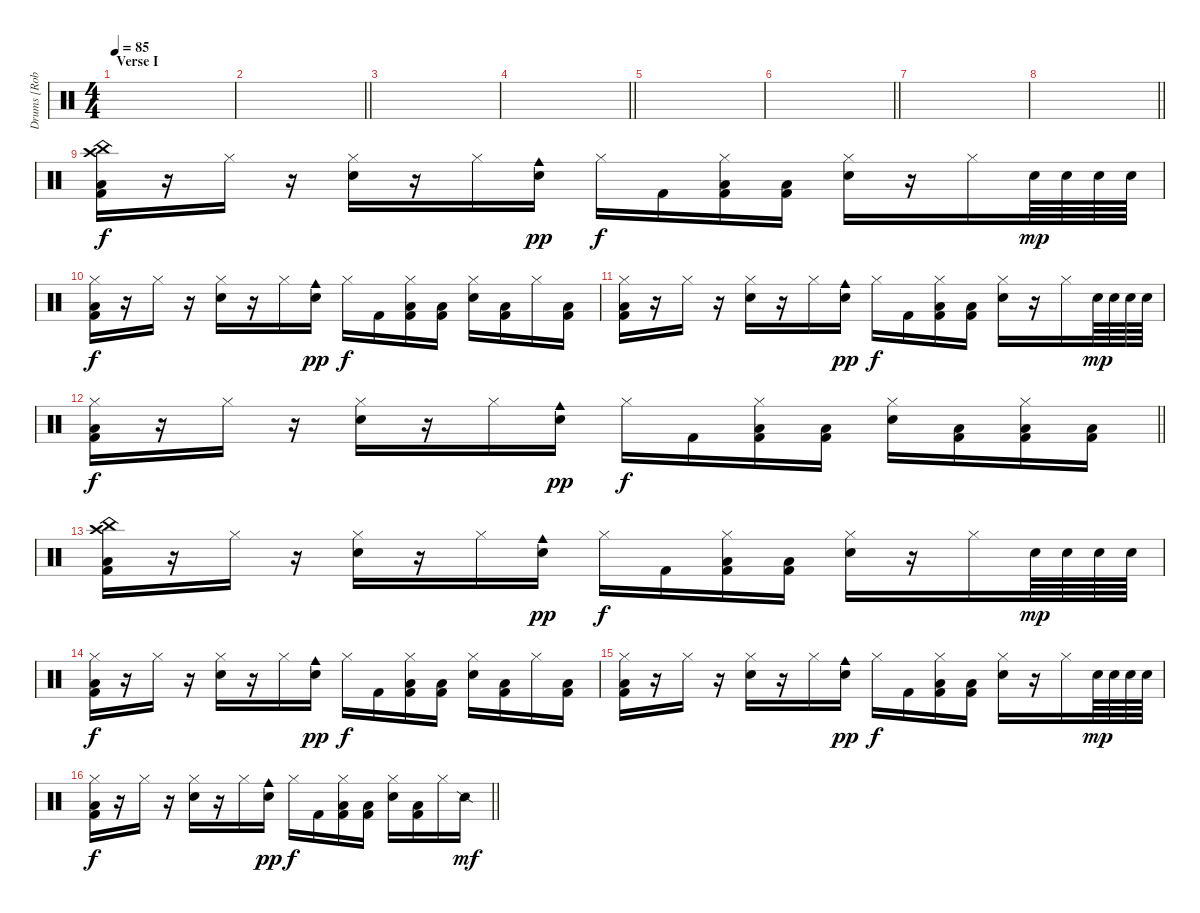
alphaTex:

\track ("Drums [Rob Bourdon]" "Drums [Rob") {instrument percussion}
\staff {score}
\articulation defaults
\ts (4 4)
\section ("" "Verse I")
\tempo 85
\clef neutral
\ks c
|
\barLineRight lightlight
|
|
\barLineRight lightlight
|
|
\barLineRight lightlight
|
|
\barLineRight lightlight
|
("China (hit)" "Crash high (hit)" "Low Floor Tom (hit)" "Kick (hit) 2").16 r.16 "Hi-Hat (closed)".16 r.16 ("Hi-Hat (closed)" "Snare (hit) 2").16 r.16 "Hi-Hat (closed)".16 ("Snare (hit) 2" "Cowbell medium (hit)").16{dy pp} "Hi-Hat (closed)".16{dy f} "Kick (hit) 2".16 ("Hi-Hat (closed)" "Low Floor Tom (hit)" "Kick (hit) 2").16 ("Low Floor Tom (hit)" "Kick (hit) 2").16 ("Hi-Hat (closed)" "Snare (hit) 2").16 r.16 "Hi-Hat (closed)".16 "Snare (hit) 2".64{dy mp} "Snare (hit) 2".64 "Snare (hit) 2".64 "Snare (hit) 2".64 |
("Hi-Hat (closed)" "Low Floor Tom (hit)" "Kick (hit) 2").16{dy f} r.16 "Hi-Hat (closed)".16 r.16 ("Hi-Hat (closed)" "Snare (hit) 2").16 r.16 "Hi-Hat (closed)".16 ("Snare (hit) 2" "Cowbell medium (hit)").16{dy pp} "Hi-Hat (closed)".16{dy f} "Kick (hit) 2".16 ("Hi-Hat (closed)" "Low Floor Tom (hit)" "Kick (hit) 2").16 ("Low Floor Tom (hit)" "Kick (hit) 2").16 ("Hi-Hat (closed)" "Snare (hit) 2").16 ("Low Floor Tom (hit)" "Kick (hit) 2").16 "Hi-Hat (closed)".16 ("Low Floor Tom (hit)" "Kick (hit) 2").16 |
("Hi-Hat (closed)" "Low Floor Tom (hit)" "Kick (hit) 2").16 r.16 "Hi-Hat (closed)".16 r.16 ("Hi-Hat (closed)" "Snare (hit) 2").16 r.16 "Hi-Hat (closed)".16 ("Snare (hit) 2" "Cowbell medium (hit)").16{dy pp} "Hi-Hat (closed)".16{dy f} "Kick (hit) 2".16 ("Hi-Hat (closed)" "Low Floor Tom (hit)" "Kick (hit) 2").16 ("Low Floor Tom (hit)" "Kick (hit) 2").16 ("Hi-Hat (closed)" "Snare (hit) 2").16 r.16 "Hi-Hat (closed)".16 "Snare (hit) 2".64{dy mp} "Snare (hit) 2".64 "Snare (hit) 2".64 "Snare (hit) 2".64 |
\barLineRight lightlight
("Hi-Hat (closed)" "Low Floor Tom (hit)" "Kick (hit) 2").16{dy f} r.16 "Hi-Hat (closed)".16 r.16 ("Hi-Hat (closed)" "Snare (hit) 2").16 r.16 "Hi-Hat (closed)".16 ("Snare (hit) 2" "Cowbell medium (hit)").16{dy pp} "Hi-Hat (closed)".16{dy f} "Kick (hit) 2".16 ("Hi-Hat (closed)" "Low Floor Tom (hit)" "Kick (hit) 2").16 ("Low Floor Tom (hit)" "Kick (hit) 2").16 ("Hi-Hat (closed)" "Snare (hit) 2").16 ("Low Floor Tom (hit)" "Kick (hit) 2").16 ("Hi-Hat (closed)" "Low Floor Tom (hit)" "Kick (hit) 2").16 ("Low Floor Tom (hit)" "Kick (hit) 2").16 |
("China (hit)" "Crash high (hit)" "Low Floor Tom (hit)" "Kick (hit) 2").16 r.16 "Hi-Hat (closed)".16 r.16 ("Hi-Hat (closed)" "Snare (hit) 2").16 r.16 "Hi-Hat (closed)".16 ("Snare (hit) 2" "Cowbell medium (hit)").16{dy pp} "Hi-Hat (closed)".16{dy f} "Kick (hit) 2".16 ("Hi-Hat (closed)" "Low Floor Tom (hit)" "Kick (hit) 2").16 ("Low Floor Tom (hit)" "Kick (hit) 2").16 ("Hi-Hat (closed)" "Snare (hit) 2").16 r.16 "Hi-Hat (closed)".16 "Snare (hit) 2".64{dy mp} "Snare (hit) 2".64 "Snare (hit) 2".64 "Snare (hit) 2".64 |
("Hi-Hat (closed)" "Low Floor Tom (hit)" "Kick (hit) 2").16{dy f} r.16 "Hi-Hat (closed)".16 r.16 ("Hi-Hat (closed)" "Snare (hit) 2").16 r.16 "Hi-Hat (closed)".16 ("Snare (hit) 2" "Cowbell medium (hit)").16{dy pp} "Hi-Hat (closed)".16{dy f} "Kick (hit) 2".16 ("Hi-Hat (closed)" "Low Floor Tom (hit)" "Kick (hit) 2").16 ("Low Floor Tom (hit)" "Kick (hit) 2").16 ("Hi-Hat (closed)" "Snare (hit) 2").16 ("Low Floor Tom (hit)" "Kick (hit) 2").16 "Hi-Hat (closed)".16 ("Low Floor Tom (hit)" "Kick (hit) 2").16 |
("Hi-Hat (closed)" "Low Floor Tom (hit)" "Kick (hit) 2").16 r.16 "Hi-Hat (closed)".16 r.16 ("Hi-Hat (closed)" "Snare (hit) 2").16 r.16 "Hi-Hat (closed)".16 ("Snare (hit) 2" "Cowbell medium (hit)").16{dy pp} "Hi-Hat (closed)".16{dy f} "Kick (hit) 2".16 ("Hi-Hat (closed)" "Low Floor Tom (hit)" "Kick (hit) 2").16 ("Low Floor Tom (hit)" "Kick (hit) 2").16 ("Hi-Hat (closed)" "Snare (hit) 2").16 r.16 "Hi-Hat (closed)".16 "Snare (hit) 2".64{dy mp} "Snare (hit) 2".64 "Snare (hit) 2".64 "Snare (hit) 2".64 |
\barLineRight lightlight
("Hi-Hat (closed)" "Low Floor Tom (hit)" "Kick (hit) 2").16{dy f} r.16 "Hi-Hat (closed)".16 r.16 ("Hi-Hat (closed)" "Snare (hit) 2").16 r.16 "Hi-Hat (closed)".16 ("Snare (hit) 2" "Cowbell medium (hit)").16{dy pp} "Hi-Hat (closed)".16{dy f} "Kick (hit) 2".16 ("Hi-Hat (closed)" "Low Floor Tom (hit)" "Kick (hit) 2").16 ("Low Floor Tom (hit)" "Kick (hit) 2").16 ("Hi-Hat (closed)" "Snare (hit) 2").16 ("Low Floor Tom (hit)" "Kick (hit) 2").16 "Hi-Hat (closed)".16 "Snare (side stick) 2".16{dy mf}
